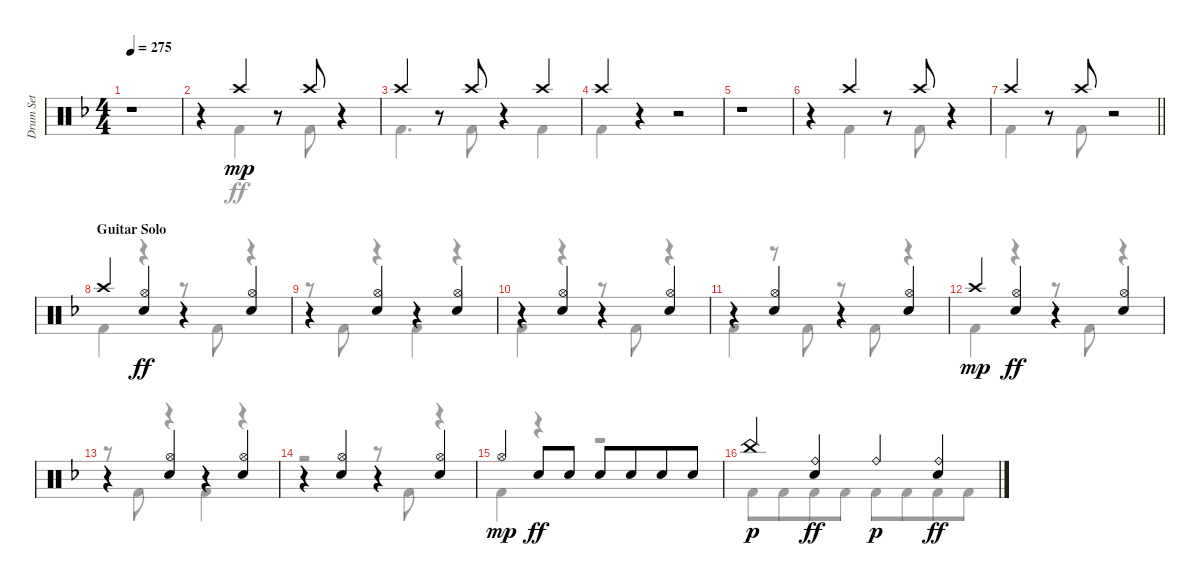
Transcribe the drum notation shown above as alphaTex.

\track ("Drum Set" "Drum Set") {instrument percussion}
\staff {score}
\articulation defaults
\voice
\ts (4 4)
\tempo 275
\clef neutral
\ks dminor
r.1{dy mp} |
r.4 "Crash high (hit)".4 r.8 "Crash high (hit)".8 r.4 |
"Crash high (hit)".4 r.8 "Crash high (hit)".8 r.4 "Crash high (hit)".4 |
"Crash high (hit)".4 r.4 r.2 |
r.1 |
r.4 "Crash high (hit)".4 r.8 "Crash high (hit)".8 r.4 |
\barLineRight lightlight "Crash high (hit)".4
r.8 "Crash high (hit)".8 r.2 |
\section ("" "Guitar Solo")
"Crash high (hit)".4 ("Hi-Hat (open)" "Electric Snare (hit)").4{dy ff} r.4 ("Hi-Hat (open)" "Electric Snare (hit)").4 |
r.4 ("Hi-Hat (open)" "Electric Snare (hit)").4 r.4 ("Hi-Hat (open)" "Electric Snare (hit)").4 |
r.4 ("Hi-Hat (open)" "Electric Snare (hit)").4 r.4 ("Hi-Hat (open)" "Electric Snare (hit)").4 |
r.4 ("Hi-Hat (open)" "Electric Snare (hit)").4 r.4 ("Hi-Hat (open)" "Electric Snare (hit)").4 |
"Crash high (hit)".4{dy mp} ("Hi-Hat (open)" "Electric Snare (hit)").4{dy ff} r.4 ("Hi-Hat (open)" "Electric Snare (hit)").4 |
r.4 ("Hi-Hat (open)" "Electric Snare (hit)").4 r.4 ("Hi-Hat (open)" "Electric Snare (hit)").4 |
r.4 ("Hi-Hat (open)" "Electric Snare (hit)").4 r.4 ("Hi-Hat (open)" "Electric Snare (hit)").4 |
"Hi-Hat (open)".4{dy mp} "Electric Snare (hit)".8{dy ff} "Electric Snare (hit)".8 "Electric Snare (hit)".8 "Electric Snare (hit)".8{beam merge} "Electric Snare (hit)".8 "Electric Snare (hit)".8 |
"China (hit)".4{dy p} ("Ride (bell)" "Electric Snare (hit)").4{dy ff} "Ride (bell)".4{dy p} ("Ride (bell)" "Electric Snare (hit)").4{dy ff}
\voice
\clef neutral
\ottava regular
\simile none
\ks dminor
|
r.4 "Kick (hit) 2".4 r.8 "Kick (hit) 2".8 r.4 |
"Kick (hit) 2".4{d} "Kick (hit) 2".8 r.4 "Kick (hit) 2".4 |
"Kick (hit) 2".4 r.4 r.2 |
|
r.4 "Kick (hit) 2".4 r.8 "Kick (hit) 2".8 r.4 |
\barLineRight lightlight "Kick (hit) 2".4
r.8 "Kick (hit) 2".8 r.2 |
"Kick (hit) 2".4 r.4 r.8 "Kick (hit) 2".8 r.4 |
r.8 "Kick (hit) 2".8 r.4 "Kick (hit) 2".4 r.4 |
"Kick (hit) 2".4 r.4 r.8 "Kick (hit) 2".8 r.4 |
"Kick (hit) 2".4 r.8 "Kick (hit) 2".8 r.8 "Kick (hit) 2".8 r.4 |
"Kick (hit) 2".4 r.4 r.8 "Kick (hit) 2".8 r.4 |
r.8 "Kick (hit) 2".8 r.4 "Kick (hit) 2".4 r.4 |
r.2 r.8 "Kick (hit) 2".8 r.4 |
"Kick (hit) 2".4 r.4 r.2 |
"Kick (hit) 2".8 "Kick (hit) 2".8{beam merge} "Kick (hit) 2".8 "Kick (hit) 2".8 "Kick (hit) 2".8 "Kick (hit) 2".8{beam merge} "Kick (hit) 2".8 "Kick (hit) 2".8
